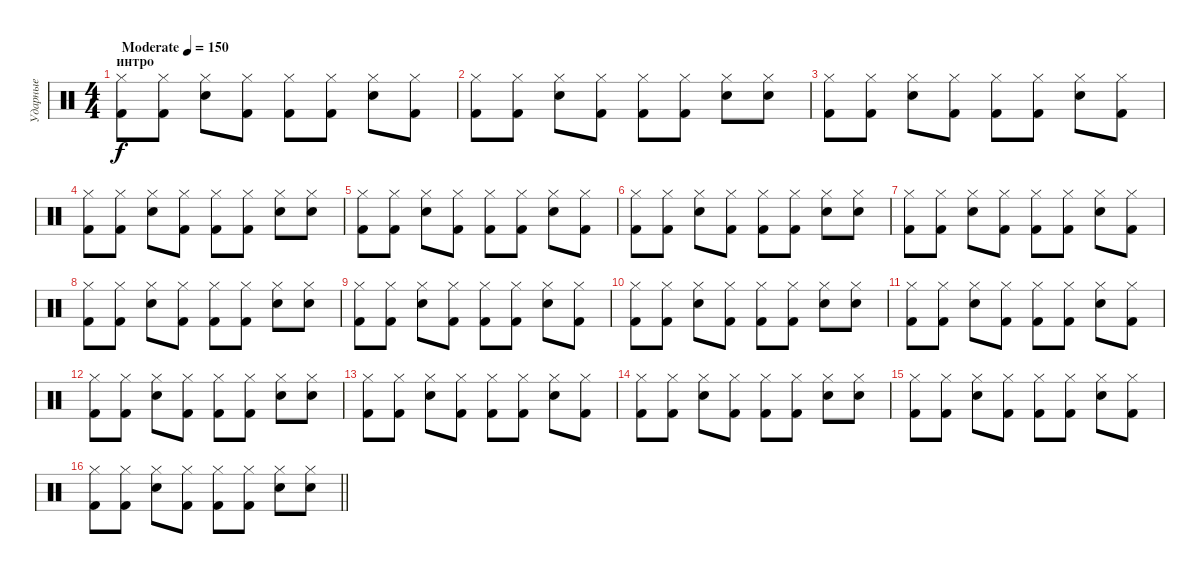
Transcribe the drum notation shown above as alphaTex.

\track ("Ударные" "Ударные") {instrument percussion}
\staff {score}
\articulation defaults
\ts (4 4)
\section ("" "интро")
\tempo (150 "Moderate")
\clef neutral
\ks c
("Hi-Hat (closed)" "Kick (hit) 2").8{dy f} ("Hi-Hat (closed)" "Kick (hit) 2").8 ("Hi-Hat (closed)" "Snare (hit) 2").8 ("Hi-Hat (closed)" "Kick (hit) 2").8 ("Hi-Hat (closed)" "Kick (hit) 2").8 ("Hi-Hat (closed)" "Kick (hit) 2").8 ("Hi-Hat (closed)" "Snare (hit) 2").8 ("Hi-Hat (closed)" "Kick (hit) 2").8 |
("Hi-Hat (closed)" "Kick (hit) 2").8 ("Hi-Hat (closed)" "Kick (hit) 2").8 ("Hi-Hat (closed)" "Snare (hit) 2").8 ("Hi-Hat (closed)" "Kick (hit) 2").8 ("Hi-Hat (closed)" "Kick (hit) 2").8 ("Hi-Hat (closed)" "Kick (hit) 2").8 ("Hi-Hat (closed)" "Snare (hit) 2").8 ("Hi-Hat (closed)" "Snare (hit) 2").8 |
("Hi-Hat (closed)" "Kick (hit) 2").8 ("Hi-Hat (closed)" "Kick (hit) 2").8 ("Hi-Hat (closed)" "Snare (hit) 2").8 ("Hi-Hat (closed)" "Kick (hit) 2").8 ("Hi-Hat (closed)" "Kick (hit) 2").8 ("Hi-Hat (closed)" "Kick (hit) 2").8 ("Hi-Hat (closed)" "Snare (hit) 2").8 ("Hi-Hat (closed)" "Kick (hit) 2").8 |
("Hi-Hat (closed)" "Kick (hit) 2").8 ("Hi-Hat (closed)" "Kick (hit) 2").8 ("Hi-Hat (closed)" "Snare (hit) 2").8 ("Hi-Hat (closed)" "Kick (hit) 2").8 ("Hi-Hat (closed)" "Kick (hit) 2").8 ("Hi-Hat (closed)" "Kick (hit) 2").8 ("Hi-Hat (closed)" "Snare (hit) 2").8 ("Hi-Hat (closed)" "Snare (hit) 2").8 |
("Hi-Hat (closed)" "Kick (hit) 2").8 ("Hi-Hat (closed)" "Kick (hit) 2").8 ("Hi-Hat (closed)" "Snare (hit) 2").8 ("Hi-Hat (closed)" "Kick (hit) 2").8 ("Hi-Hat (closed)" "Kick (hit) 2").8 ("Hi-Hat (closed)" "Kick (hit) 2").8 ("Hi-Hat (closed)" "Snare (hit) 2").8 ("Hi-Hat (closed)" "Kick (hit) 2").8 |
("Hi-Hat (closed)" "Kick (hit) 2").8 ("Hi-Hat (closed)" "Kick (hit) 2").8 ("Hi-Hat (closed)" "Snare (hit) 2").8 ("Hi-Hat (closed)" "Kick (hit) 2").8 ("Hi-Hat (closed)" "Kick (hit) 2").8 ("Hi-Hat (closed)" "Kick (hit) 2").8 ("Hi-Hat (closed)" "Snare (hit) 2").8 ("Hi-Hat (closed)" "Snare (hit) 2").8 |
("Hi-Hat (closed)" "Kick (hit) 2").8 ("Hi-Hat (closed)" "Kick (hit) 2").8 ("Hi-Hat (closed)" "Snare (hit) 2").8 ("Hi-Hat (closed)" "Kick (hit) 2").8 ("Hi-Hat (closed)" "Kick (hit) 2").8 ("Hi-Hat (closed)" "Kick (hit) 2").8 ("Hi-Hat (closed)" "Snare (hit) 2").8 ("Hi-Hat (closed)" "Kick (hit) 2").8 |
("Hi-Hat (closed)" "Kick (hit) 2").8 ("Hi-Hat (closed)" "Kick (hit) 2").8 ("Hi-Hat (closed)" "Snare (hit) 2").8 ("Hi-Hat (closed)" "Kick (hit) 2").8 ("Hi-Hat (closed)" "Kick (hit) 2").8 ("Hi-Hat (closed)" "Kick (hit) 2").8 ("Hi-Hat (closed)" "Snare (hit) 2").8 ("Hi-Hat (closed)" "Snare (hit) 2").8 |
("Hi-Hat (closed)" "Kick (hit) 2").8 ("Hi-Hat (closed)" "Kick (hit) 2").8 ("Hi-Hat (closed)" "Snare (hit) 2").8 ("Hi-Hat (closed)" "Kick (hit) 2").8 ("Hi-Hat (closed)" "Kick (hit) 2").8 ("Hi-Hat (closed)" "Kick (hit) 2").8 ("Hi-Hat (closed)" "Snare (hit) 2").8 ("Hi-Hat (closed)" "Kick (hit) 2").8 |
("Hi-Hat (closed)" "Kick (hit) 2").8 ("Hi-Hat (closed)" "Kick (hit) 2").8 ("Hi-Hat (closed)" "Snare (hit) 2").8 ("Hi-Hat (closed)" "Kick (hit) 2").8 ("Hi-Hat (closed)" "Kick (hit) 2").8 ("Hi-Hat (closed)" "Kick (hit) 2").8 ("Hi-Hat (closed)" "Snare (hit) 2").8 ("Hi-Hat (closed)" "Snare (hit) 2").8 |
("Hi-Hat (closed)" "Kick (hit) 2").8 ("Hi-Hat (closed)" "Kick (hit) 2").8 ("Hi-Hat (closed)" "Snare (hit) 2").8 ("Hi-Hat (closed)" "Kick (hit) 2").8 ("Hi-Hat (closed)" "Kick (hit) 2").8 ("Hi-Hat (closed)" "Kick (hit) 2").8 ("Hi-Hat (closed)" "Snare (hit) 2").8 ("Hi-Hat (closed)" "Kick (hit) 2").8 |
("Hi-Hat (closed)" "Kick (hit) 2").8 ("Hi-Hat (closed)" "Kick (hit) 2").8 ("Hi-Hat (closed)" "Snare (hit) 2").8 ("Hi-Hat (closed)" "Kick (hit) 2").8 ("Hi-Hat (closed)" "Kick (hit) 2").8 ("Hi-Hat (closed)" "Kick (hit) 2").8 ("Hi-Hat (closed)" "Snare (hit) 2").8 ("Hi-Hat (closed)" "Snare (hit) 2").8 |
("Hi-Hat (closed)" "Kick (hit) 2").8 ("Hi-Hat (closed)" "Kick (hit) 2").8 ("Hi-Hat (closed)" "Snare (hit) 2").8 ("Hi-Hat (closed)" "Kick (hit) 2").8 ("Hi-Hat (closed)" "Kick (hit) 2").8 ("Hi-Hat (closed)" "Kick (hit) 2").8 ("Hi-Hat (closed)" "Snare (hit) 2").8 ("Hi-Hat (closed)" "Kick (hit) 2").8 |
("Hi-Hat (closed)" "Kick (hit) 2").8 ("Hi-Hat (closed)" "Kick (hit) 2").8 ("Hi-Hat (closed)" "Snare (hit) 2").8 ("Hi-Hat (closed)" "Kick (hit) 2").8 ("Hi-Hat (closed)" "Kick (hit) 2").8 ("Hi-Hat (closed)" "Kick (hit) 2").8 ("Hi-Hat (closed)" "Snare (hit) 2").8 ("Hi-Hat (closed)" "Snare (hit) 2").8 |
("Hi-Hat (closed)" "Kick (hit) 2").8 ("Hi-Hat (closed)" "Kick (hit) 2").8 ("Hi-Hat (closed)" "Snare (hit) 2").8 ("Hi-Hat (closed)" "Kick (hit) 2").8 ("Hi-Hat (closed)" "Kick (hit) 2").8 ("Hi-Hat (closed)" "Kick (hit) 2").8 ("Hi-Hat (closed)" "Snare (hit) 2").8 ("Hi-Hat (closed)" "Kick (hit) 2").8 |
\barLineRight lightlight
("Hi-Hat (closed)" "Kick (hit) 2").8 ("Hi-Hat (closed)" "Kick (hit) 2").8 ("Hi-Hat (closed)" "Snare (hit) 2").8 ("Hi-Hat (closed)" "Kick (hit) 2").8 ("Hi-Hat (closed)" "Kick (hit) 2").8 ("Hi-Hat (closed)" "Kick (hit) 2").8 ("Hi-Hat (closed)" "Snare (hit) 2").8 ("Hi-Hat (closed)" "Snare (hit) 2").8
